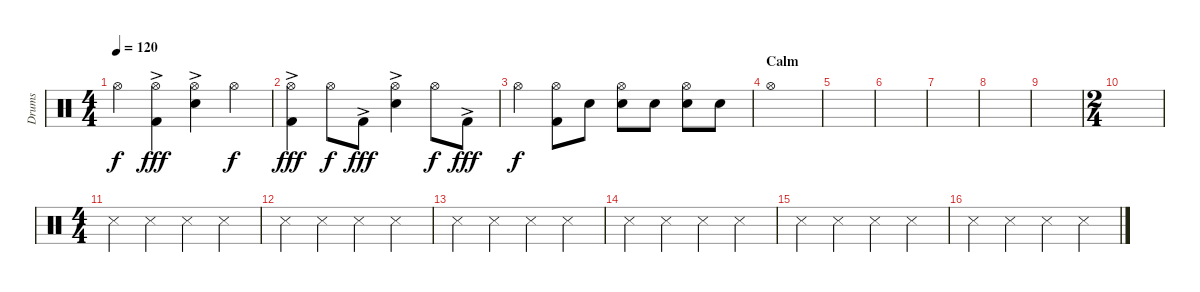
\track ("Drums" "Drums") {instrument percussion}
\staff {score}
\articulation defaults
\ts (4 4)
\tempo 120
\clef neutral
\ks c "Hi-Hat (open)".4{dy f}
("Hi-Hat (open)" "Kick (hit) 2"{ac}).4{dy fff} ("Hi-Hat (open)" "Electric Snare (hit)"{ac}).4 "Hi-Hat (open)".4{dy f} |
("Hi-Hat (open)" "Kick (hit) 2"{ac}).4{dy fff} "Hi-Hat (open)".8{dy f} "Kick (hit) 2"{ac}.8{dy fff} ("Hi-Hat (open)" "Electric Snare (hit)"{ac}).4 "Hi-Hat (open)".8{dy f} "Kick (hit) 2"{ac}.8{dy fff} |
"Hi-Hat (open)".4{dy f} ("Hi-Hat (open)" "Kick (hit) 2").8 "Electric Snare (hit)".8 ("Hi-Hat (open)" "Electric Snare (hit)").8 "Electric Snare (hit)".8 ("Hi-Hat (open)" "Electric Snare (hit)").8 "Electric Snare (hit)".8 |
\section ("" "Calm")
"Hi-Hat (open)".1 |
|
|
|
|
|
\ts (2 4)
|
\ts (4 4)
"Metronome (hit)".4 "Metronome (hit)".4 "Metronome (hit)".4 "Metronome (hit)".4 |
"Metronome (hit)".4 "Metronome (hit)".4 "Metronome (hit)".4 "Metronome (hit)".4 |
"Metronome (hit)".4 "Metronome (hit)".4 "Metronome (hit)".4 "Metronome (hit)".4 |
"Metronome (hit)".4 "Metronome (hit)".4 "Metronome (hit)".4 "Metronome (hit)".4 |
"Metronome (hit)".4 "Metronome (hit)".4 "Metronome (hit)".4 "Metronome (hit)".4 |
"Metronome (hit)".4 "Metronome (hit)".4 "Metronome (hit)".4 "Metronome (hit)".4
